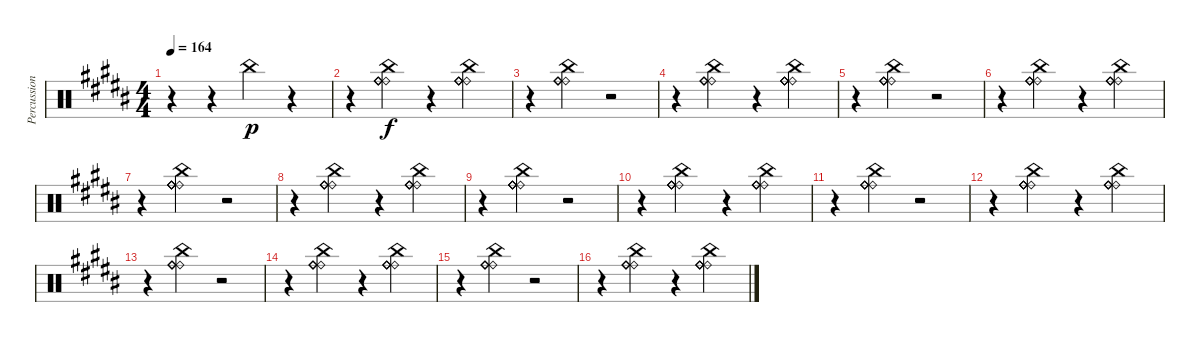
\track ("Percussion" "Percussion") {instrument percussion}
\staff {score}
\articulation defaults
\ts (4 4)
\tempo 164
\clef neutral
\ks g#minor
r.4{dy p} r.4 "China (hit)".4 r.4 |
r.4 ("China (hit)" "Ride (bell)" "Ride (bell)" "Ride (bell)" "Ride (bell)" "Ride (bell)").4{dy f} r.4 ("China (hit)" "Ride (bell)" "Ride (bell)" "Ride (bell)" "Ride (bell)" "Ride (bell)").4 |
r.4 ("China (hit)" "Ride (bell)" "Ride (bell)" "Ride (bell)" "Ride (bell)" "Ride (bell)").4 r.2 |
r.4 ("China (hit)" "Ride (bell)" "Ride (bell)" "Ride (bell)" "Ride (bell)" "Ride (bell)").4 r.4 ("China (hit)" "Ride (bell)" "Ride (bell)" "Ride (bell)" "Ride (bell)" "Ride (bell)").4 |
r.4 ("China (hit)" "Ride (bell)" "Ride (bell)" "Ride (bell)" "Ride (bell)" "Ride (bell)").4 r.2 |
r.4 ("China (hit)" "Ride (bell)" "Ride (bell)" "Ride (bell)" "Ride (bell)" "Ride (bell)").4 r.4 ("China (hit)" "Ride (bell)" "Ride (bell)" "Ride (bell)" "Ride (bell)" "Ride (bell)").4 |
r.4 ("China (hit)" "Ride (bell)" "Ride (bell)" "Ride (bell)" "Ride (bell)" "Ride (bell)").4 r.2 |
r.4 ("China (hit)" "Ride (bell)" "Ride (bell)" "Ride (bell)" "Ride (bell)" "Ride (bell)").4 r.4 ("China (hit)" "Ride (bell)" "Ride (bell)" "Ride (bell)" "Ride (bell)" "Ride (bell)").4 |
r.4 ("China (hit)" "Ride (bell)" "Ride (bell)" "Ride (bell)" "Ride (bell)" "Ride (bell)").4 r.2 |
r.4 ("China (hit)" "Ride (bell)" "Ride (bell)" "Ride (bell)" "Ride (bell)" "Ride (bell)").4 r.4 ("China (hit)" "Ride (bell)" "Ride (bell)" "Ride (bell)" "Ride (bell)" "Ride (bell)").4 |
r.4 ("China (hit)" "Ride (bell)" "Ride (bell)" "Ride (bell)" "Ride (bell)" "Ride (bell)").4 r.2 |
r.4 ("China (hit)" "Ride (bell)" "Ride (bell)" "Ride (bell)" "Ride (bell)" "Ride (bell)").4 r.4 ("China (hit)" "Ride (bell)" "Ride (bell)" "Ride (bell)" "Ride (bell)" "Ride (bell)").4 |
r.4 ("China (hit)" "Ride (bell)" "Ride (bell)" "Ride (bell)" "Ride (bell)" "Ride (bell)").4 r.2 |
r.4 ("China (hit)" "Ride (bell)" "Ride (bell)" "Ride (bell)" "Ride (bell)" "Ride (bell)").4 r.4 ("China (hit)" "Ride (bell)" "Ride (bell)" "Ride (bell)" "Ride (bell)" "Ride (bell)").4 |
r.4 ("China (hit)" "Ride (bell)" "Ride (bell)" "Ride (bell)" "Ride (bell)" "Ride (bell)").4 r.2 |
r.4 ("China (hit)" "Ride (bell)" "Ride (bell)" "Ride (bell)" "Ride (bell)" "Ride (bell)").4 r.4 ("China (hit)" "Ride (bell)" "Ride (bell)" "Ride (bell)" "Ride (bell)" "Ride (bell)").4
